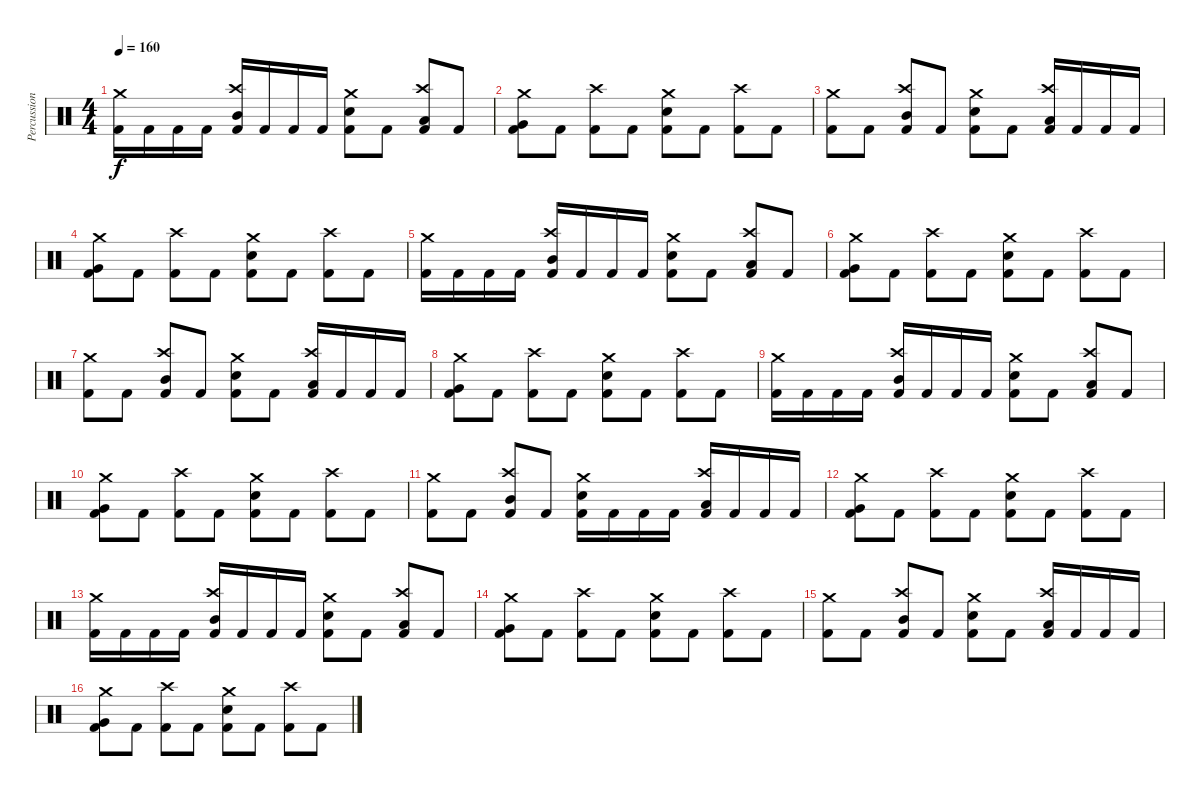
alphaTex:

\track ("Percussion" "Percussion") {instrument percussion}
\staff {score}
\articulation defaults
\ts (4 4)
\tempo 160
\clef neutral
\ks c
("Crash medium (hit)" "Kick (hit) 2").16{dy f} "Kick (hit) 2".16 "Kick (hit) 2".16 "Kick (hit) 2".16 ("Crash high (hit)" "Mid Tom (hit)" "Kick (hit) 2").16 "Kick (hit) 2".16 "Kick (hit) 2".16 "Kick (hit) 2".16 ("Crash medium (hit)" "Electric Snare (hit)" "Kick (hit) 2").8 "Kick (hit) 2".8 ("Crash high (hit)" "Low Tom (hit)" "Kick (hit) 2").8 "Kick (hit) 2".8 |
("Crash medium (hit)" "Very Low Tom (hit)" "Kick (hit) 2").8 "Kick (hit) 2".8 ("Crash high (hit)" "Kick (hit) 2").8 "Kick (hit) 2".8 ("Crash medium (hit)" "Electric Snare (hit)" "Kick (hit) 2").8 "Kick (hit) 2".8 ("Crash high (hit)" "Kick (hit) 2").8 "Kick (hit) 2".8 |
("Crash medium (hit)" "Kick (hit) 2").8 "Kick (hit) 2".8 ("Crash high (hit)" "Mid Tom (hit)" "Kick (hit) 2").8 "Kick (hit) 2".8 ("Crash medium (hit)" "Electric Snare (hit)" "Kick (hit) 2").8 "Kick (hit) 2".8 ("Crash high (hit)" "Low Tom (hit)" "Kick (hit) 2").16 "Kick (hit) 2".16 "Kick (hit) 2".16 "Kick (hit) 2".16 |
("Crash medium (hit)" "Very Low Tom (hit)" "Kick (hit) 2").8 "Kick (hit) 2".8 ("Crash high (hit)" "Kick (hit) 2").8 "Kick (hit) 2".8 ("Crash medium (hit)" "Electric Snare (hit)" "Kick (hit) 2").8 "Kick (hit) 2".8 ("Crash high (hit)" "Kick (hit) 2").8 "Kick (hit) 2".8 |
("Crash medium (hit)" "Kick (hit) 2").16 "Kick (hit) 2".16 "Kick (hit) 2".16 "Kick (hit) 2".16 ("Crash high (hit)" "Mid Tom (hit)" "Kick (hit) 2").16 "Kick (hit) 2".16 "Kick (hit) 2".16 "Kick (hit) 2".16 ("Crash medium (hit)" "Electric Snare (hit)" "Kick (hit) 2").8 "Kick (hit) 2".8 ("Crash high (hit)" "Low Tom (hit)" "Kick (hit) 2").8 "Kick (hit) 2".8 |
("Crash medium (hit)" "Very Low Tom (hit)" "Kick (hit) 2").8 "Kick (hit) 2".8 ("Crash high (hit)" "Kick (hit) 2").8 "Kick (hit) 2".8 ("Crash medium (hit)" "Electric Snare (hit)" "Kick (hit) 2").8 "Kick (hit) 2".8 ("Crash high (hit)" "Kick (hit) 2").8 "Kick (hit) 2".8 |
("Crash medium (hit)" "Kick (hit) 2").8 "Kick (hit) 2".8 ("Crash high (hit)" "Mid Tom (hit)" "Kick (hit) 2").8 "Kick (hit) 2".8 ("Crash medium (hit)" "Electric Snare (hit)" "Kick (hit) 2").8 "Kick (hit) 2".8 ("Crash high (hit)" "Low Tom (hit)" "Kick (hit) 2").16 "Kick (hit) 2".16 "Kick (hit) 2".16 "Kick (hit) 2".16 |
("Crash medium (hit)" "Very Low Tom (hit)" "Kick (hit) 2").8 "Kick (hit) 2".8 ("Crash high (hit)" "Kick (hit) 2").8 "Kick (hit) 2".8 ("Crash medium (hit)" "Electric Snare (hit)" "Kick (hit) 2").8 "Kick (hit) 2".8 ("Crash high (hit)" "Kick (hit) 2").8 "Kick (hit) 2".8 |
("Crash medium (hit)" "Kick (hit) 2").16 "Kick (hit) 2".16 "Kick (hit) 2".16 "Kick (hit) 2".16 ("Crash high (hit)" "Mid Tom (hit)" "Kick (hit) 2").16 "Kick (hit) 2".16 "Kick (hit) 2".16 "Kick (hit) 2".16 ("Crash medium (hit)" "Electric Snare (hit)" "Kick (hit) 2").8 "Kick (hit) 2".8 ("Crash high (hit)" "Low Tom (hit)" "Kick (hit) 2").8 "Kick (hit) 2".8 |
("Crash medium (hit)" "Very Low Tom (hit)" "Kick (hit) 2").8 "Kick (hit) 2".8 ("Crash high (hit)" "Kick (hit) 2").8 "Kick (hit) 2".8 ("Crash medium (hit)" "Electric Snare (hit)" "Kick (hit) 2").8 "Kick (hit) 2".8 ("Crash high (hit)" "Kick (hit) 2").8 "Kick (hit) 2".8 |
("Crash medium (hit)" "Kick (hit) 2").8 "Kick (hit) 2".8 ("Crash high (hit)" "Mid Tom (hit)" "Kick (hit) 2").8 "Kick (hit) 2".8 ("Crash medium (hit)" "Electric Snare (hit)" "Kick (hit) 2").16 "Kick (hit) 2".16 "Kick (hit) 2".16 "Kick (hit) 2".16 ("Crash high (hit)" "Low Tom (hit)" "Kick (hit) 2").16 "Kick (hit) 2".16 "Kick (hit) 2".16 "Kick (hit) 2".16 |
("Crash medium (hit)" "Very Low Tom (hit)" "Kick (hit) 2").8 "Kick (hit) 2".8 ("Crash high (hit)" "Kick (hit) 2").8 "Kick (hit) 2".8 ("Crash medium (hit)" "Electric Snare (hit)" "Kick (hit) 2").8 "Kick (hit) 2".8 ("Crash high (hit)" "Kick (hit) 2").8 "Kick (hit) 2".8 |
("Crash medium (hit)" "Kick (hit) 2").16 "Kick (hit) 2".16 "Kick (hit) 2".16 "Kick (hit) 2".16 ("Crash high (hit)" "Mid Tom (hit)" "Kick (hit) 2").16 "Kick (hit) 2".16 "Kick (hit) 2".16 "Kick (hit) 2".16 ("Crash medium (hit)" "Electric Snare (hit)" "Kick (hit) 2").8 "Kick (hit) 2".8 ("Crash high (hit)" "Low Tom (hit)" "Kick (hit) 2").8 "Kick (hit) 2".8 |
("Crash medium (hit)" "Very Low Tom (hit)" "Kick (hit) 2").8 "Kick (hit) 2".8 ("Crash high (hit)" "Kick (hit) 2").8 "Kick (hit) 2".8 ("Crash medium (hit)" "Electric Snare (hit)" "Kick (hit) 2").8 "Kick (hit) 2".8 ("Crash high (hit)" "Kick (hit) 2").8 "Kick (hit) 2".8 |
("Crash medium (hit)" "Kick (hit) 2").8 "Kick (hit) 2".8 ("Crash high (hit)" "Mid Tom (hit)" "Kick (hit) 2").8 "Kick (hit) 2".8 ("Crash medium (hit)" "Electric Snare (hit)" "Kick (hit) 2").8 "Kick (hit) 2".8 ("Crash high (hit)" "Low Tom (hit)" "Kick (hit) 2").16 "Kick (hit) 2".16 "Kick (hit) 2".16 "Kick (hit) 2".16 |
("Crash medium (hit)" "Very Low Tom (hit)" "Kick (hit) 2").8 "Kick (hit) 2".8 ("Crash high (hit)" "Kick (hit) 2").8 "Kick (hit) 2".8 ("Crash medium (hit)" "Electric Snare (hit)" "Kick (hit) 2").8 "Kick (hit) 2".8 ("Crash high (hit)" "Kick (hit) 2").8 "Kick (hit) 2".8
